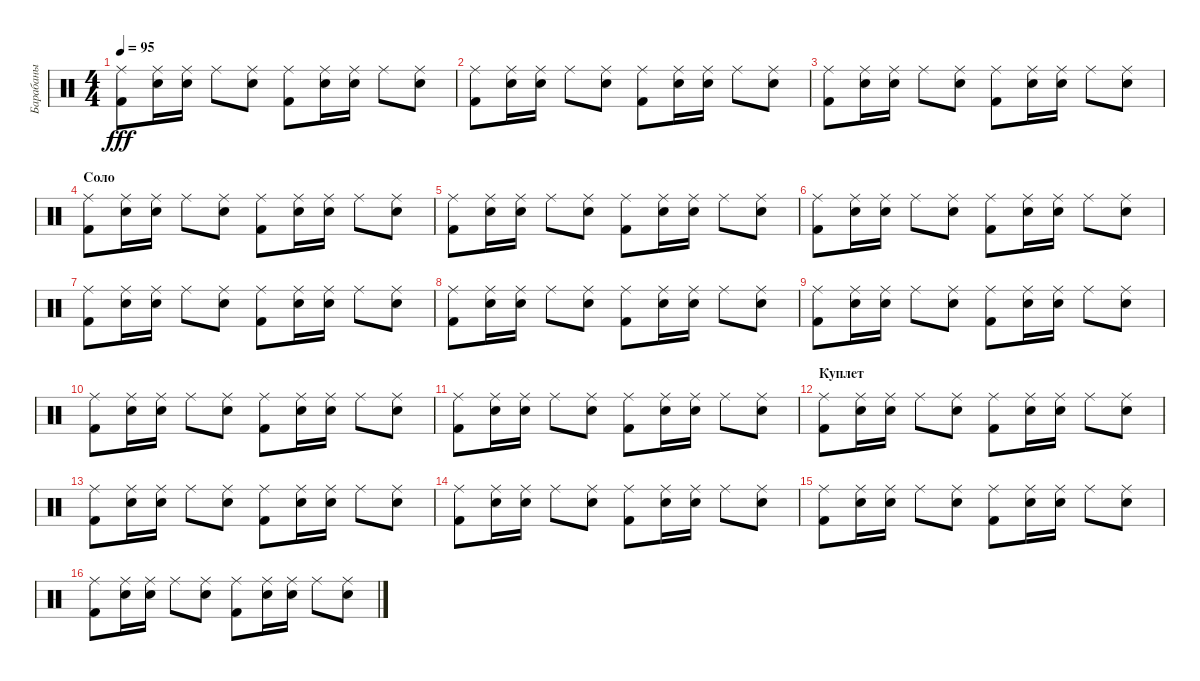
\track ("Барабаны" "Барабаны") {instrument percussion}
\staff {score}
\articulation defaults
\ts (4 4)
\tempo 95
\clef neutral
\ks c
("Kick (hit) 2" "Ride (middle)").8{dy fff} ("Snare (hit) 2" "Ride (middle)").16 ("Snare (hit) 2" "Ride (middle)").16 "Ride (middle)".8 ("Snare (hit) 2" "Ride (middle)").8 ("Kick (hit) 2" "Ride (middle)").8 ("Snare (hit) 2" "Ride (middle)").16 ("Snare (hit) 2" "Ride (middle)").16 "Ride (middle)".8 ("Snare (hit) 2" "Ride (middle)").8 |
("Kick (hit) 2" "Ride (middle)").8 ("Snare (hit) 2" "Ride (middle)").16 ("Snare (hit) 2" "Ride (middle)").16 "Ride (middle)".8 ("Snare (hit) 2" "Ride (middle)").8 ("Kick (hit) 2" "Ride (middle)").8 ("Snare (hit) 2" "Ride (middle)").16 ("Snare (hit) 2" "Ride (middle)").16 "Ride (middle)".8 ("Snare (hit) 2" "Ride (middle)").8 |
("Kick (hit) 2" "Ride (middle)").8 ("Snare (hit) 2" "Ride (middle)").16 ("Snare (hit) 2" "Ride (middle)").16 "Ride (middle)".8 ("Snare (hit) 2" "Ride (middle)").8 ("Kick (hit) 2" "Ride (middle)").8 ("Snare (hit) 2" "Ride (middle)").16 ("Snare (hit) 2" "Ride (middle)").16 "Ride (middle)".8 ("Snare (hit) 2" "Ride (middle)").8 |
\section ("" "Соло")
("Kick (hit) 2" "Ride (middle)").8 ("Snare (hit) 2" "Ride (middle)").16 ("Snare (hit) 2" "Ride (middle)").16 "Ride (middle)".8 ("Snare (hit) 2" "Ride (middle)").8 ("Kick (hit) 2" "Ride (middle)").8 ("Snare (hit) 2" "Ride (middle)").16 ("Snare (hit) 2" "Ride (middle)").16 "Ride (middle)".8 ("Snare (hit) 2" "Ride (middle)").8 |
("Kick (hit) 2" "Ride (middle)").8 ("Snare (hit) 2" "Ride (middle)").16 ("Snare (hit) 2" "Ride (middle)").16 "Ride (middle)".8 ("Snare (hit) 2" "Ride (middle)").8 ("Kick (hit) 2" "Ride (middle)").8 ("Snare (hit) 2" "Ride (middle)").16 ("Snare (hit) 2" "Ride (middle)").16 "Ride (middle)".8 ("Snare (hit) 2" "Ride (middle)").8 |
("Kick (hit) 2" "Ride (middle)").8 ("Snare (hit) 2" "Ride (middle)").16 ("Snare (hit) 2" "Ride (middle)").16 "Ride (middle)".8 ("Snare (hit) 2" "Ride (middle)").8 ("Kick (hit) 2" "Ride (middle)").8 ("Snare (hit) 2" "Ride (middle)").16 ("Snare (hit) 2" "Ride (middle)").16 "Ride (middle)".8 ("Snare (hit) 2" "Ride (middle)").8 |
("Kick (hit) 2" "Ride (middle)").8 ("Snare (hit) 2" "Ride (middle)").16 ("Snare (hit) 2" "Ride (middle)").16 "Ride (middle)".8 ("Snare (hit) 2" "Ride (middle)").8 ("Kick (hit) 2" "Ride (middle)").8 ("Snare (hit) 2" "Ride (middle)").16 ("Snare (hit) 2" "Ride (middle)").16 "Ride (middle)".8 ("Snare (hit) 2" "Ride (middle)").8 |
("Kick (hit) 2" "Ride (middle)").8 ("Snare (hit) 2" "Ride (middle)").16 ("Snare (hit) 2" "Ride (middle)").16 "Ride (middle)".8 ("Snare (hit) 2" "Ride (middle)").8 ("Kick (hit) 2" "Ride (middle)").8 ("Snare (hit) 2" "Ride (middle)").16 ("Snare (hit) 2" "Ride (middle)").16 "Ride (middle)".8 ("Snare (hit) 2" "Ride (middle)").8 |
("Kick (hit) 2" "Ride (middle)").8 ("Snare (hit) 2" "Ride (middle)").16 ("Snare (hit) 2" "Ride (middle)").16 "Ride (middle)".8 ("Snare (hit) 2" "Ride (middle)").8 ("Kick (hit) 2" "Ride (middle)").8 ("Snare (hit) 2" "Ride (middle)").16 ("Snare (hit) 2" "Ride (middle)").16 "Ride (middle)".8 ("Snare (hit) 2" "Ride (middle)").8 |
("Kick (hit) 2" "Ride (middle)").8 ("Snare (hit) 2" "Ride (middle)").16 ("Snare (hit) 2" "Ride (middle)").16 "Ride (middle)".8 ("Snare (hit) 2" "Ride (middle)").8 ("Kick (hit) 2" "Ride (middle)").8 ("Snare (hit) 2" "Ride (middle)").16 ("Snare (hit) 2" "Ride (middle)").16 "Ride (middle)".8 ("Snare (hit) 2" "Ride (middle)").8 |
("Kick (hit) 2" "Ride (middle)").8 ("Snare (hit) 2" "Ride (middle)").16 ("Snare (hit) 2" "Ride (middle)").16 "Ride (middle)".8 ("Snare (hit) 2" "Ride (middle)").8 ("Kick (hit) 2" "Ride (middle)").8 ("Snare (hit) 2" "Ride (middle)").16 ("Snare (hit) 2" "Ride (middle)").16 "Ride (middle)".8 ("Snare (hit) 2" "Ride (middle)").8 |
\section ("" "Куплет")
("Kick (hit) 2" "Ride (middle)").8 ("Snare (hit) 2" "Ride (middle)").16 ("Snare (hit) 2" "Ride (middle)").16 "Ride (middle)".8 ("Snare (hit) 2" "Ride (middle)").8 ("Kick (hit) 2" "Ride (middle)").8 ("Snare (hit) 2" "Ride (middle)").16 ("Snare (hit) 2" "Ride (middle)").16 "Ride (middle)".8 ("Snare (hit) 2" "Ride (middle)").8 |
("Kick (hit) 2" "Ride (middle)").8 ("Snare (hit) 2" "Ride (middle)").16 ("Snare (hit) 2" "Ride (middle)").16 "Ride (middle)".8 ("Snare (hit) 2" "Ride (middle)").8 ("Kick (hit) 2" "Ride (middle)").8 ("Snare (hit) 2" "Ride (middle)").16 ("Snare (hit) 2" "Ride (middle)").16 "Ride (middle)".8 ("Snare (hit) 2" "Ride (middle)").8 |
("Kick (hit) 2" "Ride (middle)").8 ("Snare (hit) 2" "Ride (middle)").16 ("Snare (hit) 2" "Ride (middle)").16 "Ride (middle)".8 ("Snare (hit) 2" "Ride (middle)").8 ("Kick (hit) 2" "Ride (middle)").8 ("Snare (hit) 2" "Ride (middle)").16 ("Snare (hit) 2" "Ride (middle)").16 "Ride (middle)".8 ("Snare (hit) 2" "Ride (middle)").8 |
("Kick (hit) 2" "Ride (middle)").8 ("Snare (hit) 2" "Ride (middle)").16 ("Snare (hit) 2" "Ride (middle)").16 "Ride (middle)".8 ("Snare (hit) 2" "Ride (middle)").8 ("Kick (hit) 2" "Ride (middle)").8 ("Snare (hit) 2" "Ride (middle)").16 ("Snare (hit) 2" "Ride (middle)").16 "Ride (middle)".8 ("Snare (hit) 2" "Ride (middle)").8 |
("Kick (hit) 2" "Ride (middle)").8 ("Snare (hit) 2" "Ride (middle)").16 ("Snare (hit) 2" "Ride (middle)").16 "Ride (middle)".8 ("Snare (hit) 2" "Ride (middle)").8 ("Kick (hit) 2" "Ride (middle)").8 ("Snare (hit) 2" "Ride (middle)").16 ("Snare (hit) 2" "Ride (middle)").16 "Ride (middle)".8 ("Snare (hit) 2" "Ride (middle)").8
